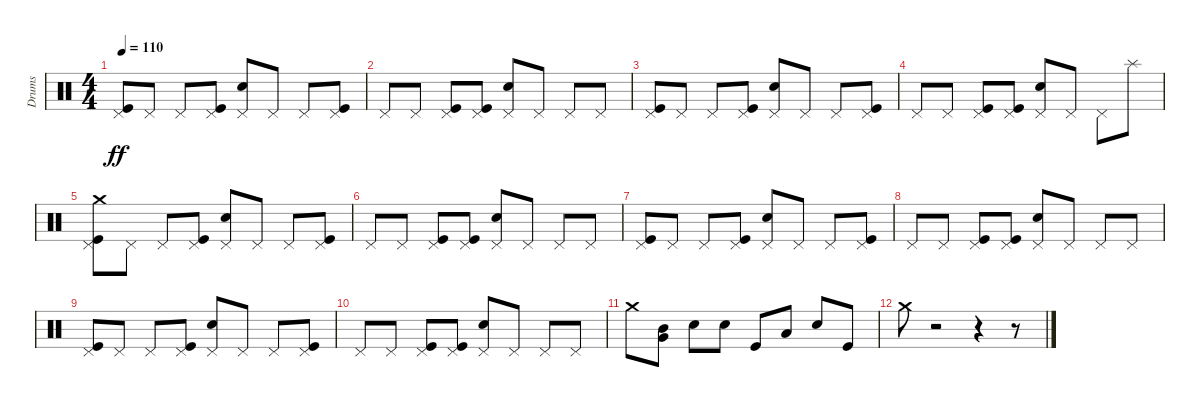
\track ("Drums" "Drums") {instrument percussion}
\staff {score}
\articulation defaults
\ts (4 4)
\tempo 110
\clef neutral
\ks c
("Kick (hit)" "Pedal Hi-Hat (hit)").8{dy ff} "Pedal Hi-Hat (hit)".8 "Pedal Hi-Hat (hit)".8 ("Kick (hit)" "Pedal Hi-Hat (hit)").8 ("Electric Snare (hit)" "Pedal Hi-Hat (hit)").8 "Pedal Hi-Hat (hit)".8 "Pedal Hi-Hat (hit)".8 ("Kick (hit)" "Pedal Hi-Hat (hit)").8 |
"Pedal Hi-Hat (hit)".8 "Pedal Hi-Hat (hit)".8 ("Kick (hit)" "Pedal Hi-Hat (hit)").8 ("Kick (hit)" "Pedal Hi-Hat (hit)").8 ("Electric Snare (hit)" "Pedal Hi-Hat (hit)").8 "Pedal Hi-Hat (hit)".8 "Pedal Hi-Hat (hit)".8 "Pedal Hi-Hat (hit)".8 |
("Kick (hit)" "Pedal Hi-Hat (hit)").8 "Pedal Hi-Hat (hit)".8 "Pedal Hi-Hat (hit)".8 ("Kick (hit)" "Pedal Hi-Hat (hit)").8 ("Electric Snare (hit)" "Pedal Hi-Hat (hit)").8 "Pedal Hi-Hat (hit)".8 "Pedal Hi-Hat (hit)".8 ("Kick (hit)" "Pedal Hi-Hat (hit)").8 |
"Pedal Hi-Hat (hit)".8 "Pedal Hi-Hat (hit)".8 ("Kick (hit)" "Pedal Hi-Hat (hit)").8 ("Kick (hit)" "Pedal Hi-Hat (hit)").8 ("Electric Snare (hit)" "Pedal Hi-Hat (hit)").8 "Pedal Hi-Hat (hit)".8 "Pedal Hi-Hat (hit)".8 "Splash (hit)".8 |
("Kick (hit)" "Pedal Hi-Hat (hit)" "Crash medium (hit)").8 "Pedal Hi-Hat (hit)".8 "Pedal Hi-Hat (hit)".8 ("Kick (hit)" "Pedal Hi-Hat (hit)").8 ("Electric Snare (hit)" "Pedal Hi-Hat (hit)").8 "Pedal Hi-Hat (hit)".8 "Pedal Hi-Hat (hit)".8 ("Kick (hit)" "Pedal Hi-Hat (hit)").8 |
"Pedal Hi-Hat (hit)".8 "Pedal Hi-Hat (hit)".8 ("Kick (hit)" "Pedal Hi-Hat (hit)").8 ("Kick (hit)" "Pedal Hi-Hat (hit)").8 ("Electric Snare (hit)" "Pedal Hi-Hat (hit)").8 "Pedal Hi-Hat (hit)".8 "Pedal Hi-Hat (hit)".8 "Pedal Hi-Hat (hit)".8 |
("Kick (hit)" "Pedal Hi-Hat (hit)").8 "Pedal Hi-Hat (hit)".8 "Pedal Hi-Hat (hit)".8 ("Kick (hit)" "Pedal Hi-Hat (hit)").8 ("Electric Snare (hit)" "Pedal Hi-Hat (hit)").8 "Pedal Hi-Hat (hit)".8 "Pedal Hi-Hat (hit)".8 ("Kick (hit)" "Pedal Hi-Hat (hit)").8 |
"Pedal Hi-Hat (hit)".8 "Pedal Hi-Hat (hit)".8 ("Kick (hit)" "Pedal Hi-Hat (hit)").8 ("Kick (hit)" "Pedal Hi-Hat (hit)").8 ("Electric Snare (hit)" "Pedal Hi-Hat (hit)").8 "Pedal Hi-Hat (hit)".8 "Pedal Hi-Hat (hit)".8 "Pedal Hi-Hat (hit)".8 |
("Kick (hit)" "Pedal Hi-Hat (hit)").8 "Pedal Hi-Hat (hit)".8 "Pedal Hi-Hat (hit)".8 ("Kick (hit)" "Pedal Hi-Hat (hit)").8 ("Electric Snare (hit)" "Pedal Hi-Hat (hit)").8 "Pedal Hi-Hat (hit)".8 "Pedal Hi-Hat (hit)".8 ("Kick (hit)" "Pedal Hi-Hat (hit)").8 |
"Pedal Hi-Hat (hit)".8 "Pedal Hi-Hat (hit)".8 ("Kick (hit)" "Pedal Hi-Hat (hit)").8 ("Kick (hit)" "Pedal Hi-Hat (hit)").8 ("Electric Snare (hit)" "Pedal Hi-Hat (hit)").8 "Pedal Hi-Hat (hit)".8 "Pedal Hi-Hat (hit)".8 "Pedal Hi-Hat (hit)".8 |
"Crash medium (hit)".8 ("Very Low Tom (hit)" "Mid Tom (hit)").8 "Electric Snare (hit)".8 "Electric Snare (hit)".8 "Kick (hit)".8 "Low Tom (hit)".8 "Electric Snare (hit)".8 "Kick (hit)".8 |
"Crash medium (hit)".8 r.2 r.4 r.8
